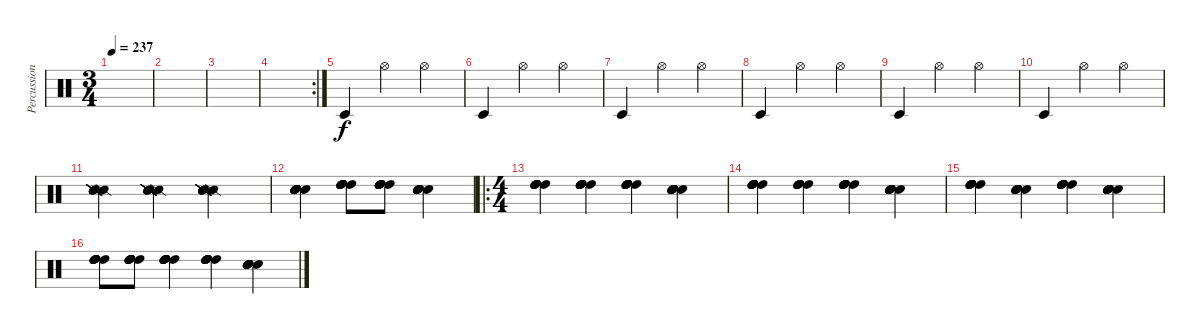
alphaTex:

\track ("Percussions" "Percussion") {instrument percussion}
\staff {score}
\articulation defaults
\ts (3 4)
\tempo 237
\clef neutral
\ks c
|
|
|
\rc 2
|
"Timbale low (hit)".4 "Hi-Hat (open)".4 "Hi-Hat (open)".4 |
"Timbale low (hit)".4 "Hi-Hat (open)".4 "Hi-Hat (open)".4 |
"Timbale low (hit)".4 "Hi-Hat (open)".4 "Hi-Hat (open)".4 |
"Timbale low (hit)".4 "Hi-Hat (open)".4 "Hi-Hat (open)".4 |
"Timbale low (hit)".4 "Hi-Hat (open)".4 "Hi-Hat (open)".4 |
"Timbale low (hit)".4 "Hi-Hat (open)".4 "Hi-Hat (open)".4 |
("Snare (side stick) 2" "Snare (side stick) 2" "Snare (side stick) 2" "Snare (side stick) 2" "Snare (side stick) 2" "Snare (side stick) 2").4 ("Snare (side stick) 2" "Snare (side stick) 2" "Snare (side stick) 2" "Snare (side stick) 2" "Snare (side stick) 2" "Snare (side stick) 2").4 ("Snare (side stick) 2" "Snare (side stick) 2" "Snare (side stick) 2" "Snare (side stick) 2" "Snare (side stick) 2" "Snare (side stick) 2").4 |
("Electric Snare (hit)" "Electric Snare (hit)" "Electric Snare (hit)" "Electric Snare (hit)" "Electric Snare (hit)" "Electric Snare (hit)").4 ("High Tom (hit)" "High Tom (hit)" "High Tom (hit)" "High Tom (hit)" "High Tom (hit)" "High Tom (hit)").8 ("High Tom (hit)" "High Tom (hit)" "High Tom (hit)" "High Tom (hit)" "High Tom (hit)" "High Tom (hit)").8 ("Electric Snare (hit)" "Electric Snare (hit)" "Electric Snare (hit)" "Electric Snare (hit)" "Electric Snare (hit)" "Electric Snare (hit)").4 |
\ro
\ts (4 4)
("High Tom (hit)" "High Tom (hit)" "High Tom (hit)" "High Tom (hit)" "High Tom (hit)" "High Tom (hit)").4 ("High Tom (hit)" "High Tom (hit)" "High Tom (hit)" "High Tom (hit)" "High Tom (hit)" "High Tom (hit)").4 ("High Tom (hit)" "High Tom (hit)" "High Tom (hit)" "High Tom (hit)" "High Tom (hit)" "High Tom (hit)").4 ("Electric Snare (hit)" "Electric Snare (hit)" "Electric Snare (hit)" "Electric Snare (hit)" "Electric Snare (hit)" "Electric Snare (hit)").4 |
("High Tom (hit)" "High Tom (hit)" "High Tom (hit)" "High Tom (hit)" "High Tom (hit)" "High Tom (hit)").4 ("High Tom (hit)" "High Tom (hit)" "High Tom (hit)" "High Tom (hit)" "High Tom (hit)" "High Tom (hit)").4 ("High Tom (hit)" "High Tom (hit)" "High Tom (hit)" "High Tom (hit)" "High Tom (hit)" "High Tom (hit)").4 ("Electric Snare (hit)" "Electric Snare (hit)" "Electric Snare (hit)" "Electric Snare (hit)" "Electric Snare (hit)" "Electric Snare (hit)").4 |
("High Tom (hit)" "High Tom (hit)" "High Tom (hit)" "High Tom (hit)" "High Tom (hit)" "High Tom (hit)").4 ("Electric Snare (hit)" "Electric Snare (hit)" "Electric Snare (hit)" "Electric Snare (hit)" "Electric Snare (hit)" "Electric Snare (hit)").4 ("High Tom (hit)" "High Tom (hit)" "High Tom (hit)" "High Tom (hit)" "High Tom (hit)" "High Tom (hit)").4 ("Electric Snare (hit)" "Electric Snare (hit)" "Electric Snare (hit)" "Electric Snare (hit)" "Electric Snare (hit)" "Electric Snare (hit)").4 |
("High Tom (hit)" "High Tom (hit)" "High Tom (hit)" "High Tom (hit)" "High Tom (hit)" "High Tom (hit)").8 ("High Tom (hit)" "High Tom (hit)" "High Tom (hit)" "High Tom (hit)" "High Tom (hit)" "High Tom (hit)").8 ("High Tom (hit)" "High Tom (hit)" "High Tom (hit)" "High Tom (hit)" "High Tom (hit)" "High Tom (hit)").4 ("High Tom (hit)" "High Tom (hit)" "High Tom (hit)" "High Tom (hit)" "High Tom (hit)" "High Tom (hit)").4 ("Electric Snare (hit)" "Electric Snare (hit)" "Electric Snare (hit)" "Electric Snare (hit)" "Electric Snare (hit)" "Electric Snare (hit)").4
